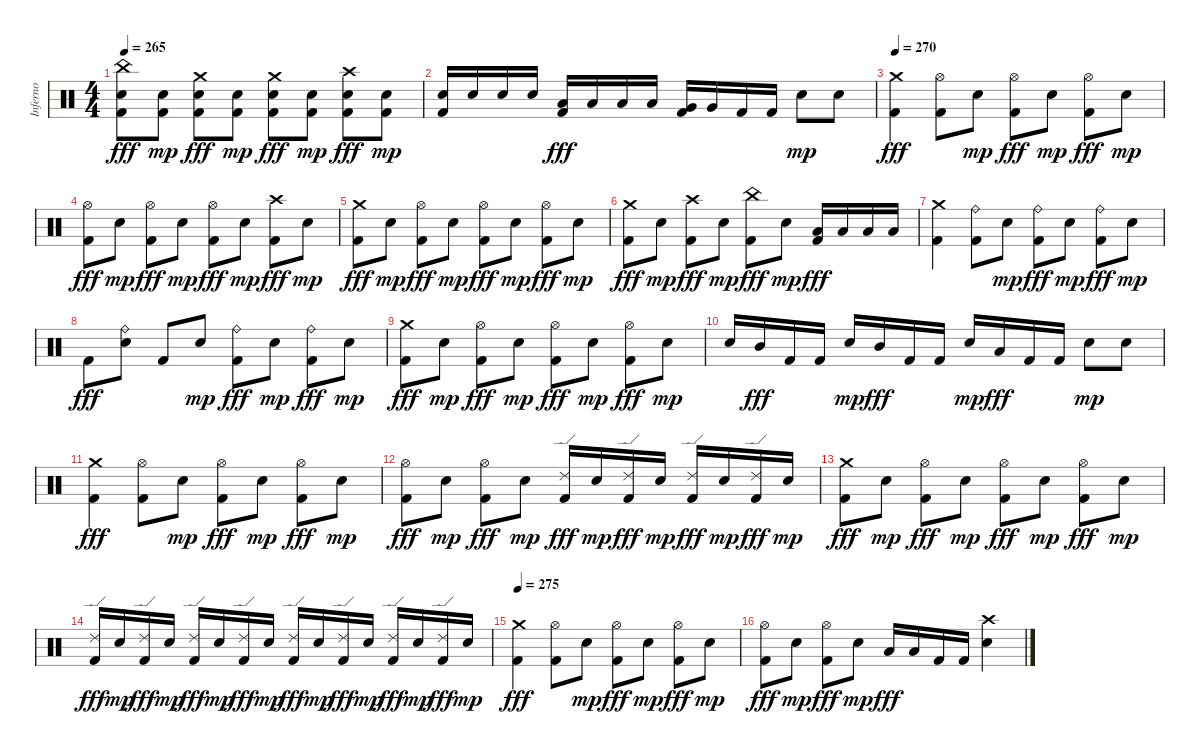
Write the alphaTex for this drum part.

\track ("Inferno" "Inferno") {instrument percussion}
\staff {score}
\articulation defaults
\ts (4 4)
\tempo 265
\clef neutral
\ks c
("Kick (hit) 2" "Electric Snare (hit)" "China (hit)").8{dy fff} ("Kick (hit) 2" "Electric Snare (hit)").8{dy mp} ("Kick (hit) 2" "Electric Snare (hit)" "Crash medium (hit)").8{dy fff} ("Kick (hit) 2" "Electric Snare (hit)").8{dy mp} ("Kick (hit) 2" "Electric Snare (hit)" "Crash medium (hit)").8{dy fff} ("Kick (hit) 2" "Electric Snare (hit)").8{dy mp} ("Kick (hit) 2" "Electric Snare (hit)" "Crash high (hit)").8{dy fff} ("Kick (hit) 2" "Electric Snare (hit)").8{dy mp} |
("Kick (hit) 2" "Electric Snare (hit)").16 "Electric Snare (hit)".16 "Electric Snare (hit)".16 "Electric Snare (hit)".16 ("Kick (hit) 2" "Low Tom (hit)").16{dy fff} "Low Tom (hit)".16 "Low Tom (hit)".16 "Low Tom (hit)".16 ("Kick (hit) 2" "Very Low Tom (hit)").16 "Very Low Tom (hit)".16 "Kick (hit) 2".16 "Kick (hit) 2".16 "Electric Snare (hit)".8{dy mp} "Electric Snare (hit)".8 |
\tempo 270
("Kick (hit) 2" "Crash medium (hit)").4{dy fff} ("Kick (hit) 2" "Hi-Hat (open)").8 "Electric Snare (hit)".8{dy mp} ("Kick (hit) 2" "Hi-Hat (open)").8{dy fff} "Electric Snare (hit)".8{dy mp} ("Kick (hit) 2" "Hi-Hat (open)").8{dy fff} "Electric Snare (hit)".8{dy mp} |
("Kick (hit) 2" "Hi-Hat (open)").8{dy fff} "Electric Snare (hit)".8{dy mp} ("Kick (hit) 2" "Hi-Hat (open)").8{dy fff} "Electric Snare (hit)".8{dy mp} ("Kick (hit) 2" "Hi-Hat (open)").8{dy fff} "Electric Snare (hit)".8{dy mp} ("Kick (hit) 2" "Crash high (hit)").8{dy fff} "Electric Snare (hit)".8{dy mp} |
("Kick (hit) 2" "Crash medium (hit)").8{dy fff} "Electric Snare (hit)".8{dy mp} ("Kick (hit) 2" "Hi-Hat (open)").8{dy fff} "Electric Snare (hit)".8{dy mp} ("Kick (hit) 2" "Hi-Hat (open)").8{dy fff} "Electric Snare (hit)".8{dy mp} ("Kick (hit) 2" "Hi-Hat (open)").8{dy fff} "Electric Snare (hit)".8{dy mp} |
("Kick (hit) 2" "Crash medium (hit)").8{dy fff} "Electric Snare (hit)".8{dy mp} ("Kick (hit) 2" "Crash high (hit)").8{dy fff} "Electric Snare (hit)".8{dy mp} ("Kick (hit) 2" "China (hit)").8{dy fff} "Electric Snare (hit)".8{dy mp} ("Kick (hit) 2" "Low Tom (hit)").16{dy fff} "Low Tom (hit)".16 "Low Tom (hit)".16 "Low Tom (hit)".16 |
("Kick (hit) 2" "Crash medium (hit)").4 ("Kick (hit) 2" "Ride (bell)").8 "Electric Snare (hit)".8{dy mp} ("Kick (hit) 2" "Ride (bell)").8{dy fff} "Electric Snare (hit)".8{dy mp} ("Kick (hit) 2" "Ride (bell)").8{dy fff} "Electric Snare (hit)".8{dy mp} |
"Kick (hit) 2".8{dy fff} ("Electric Snare (hit)" "Ride (bell)").8 "Kick (hit) 2".8 "Electric Snare (hit)".8{dy mp} ("Kick (hit) 2" "Ride (bell)").8{dy fff} "Electric Snare (hit)".8{dy mp} ("Kick (hit) 2" "Ride (bell)").8{dy fff} "Electric Snare (hit)".8{dy mp} |
("Kick (hit) 2" "Crash medium (hit)").8{dy fff} "Electric Snare (hit)".8{dy mp} ("Kick (hit) 2" "Hi-Hat (open)").8{dy fff} "Electric Snare (hit)".8{dy mp} ("Kick (hit) 2" "Hi-Hat (open)").8{dy fff} "Electric Snare (hit)".8{dy mp} ("Kick (hit) 2" "Hi-Hat (open)").8{dy fff} "Electric Snare (hit)".8{dy mp} |
"Electric Snare (hit)".16 "Mid Tom (hit)".16{dy fff} "Kick (hit) 2".16 "Kick (hit) 2".16 "Electric Snare (hit)".16{dy mp} "Mid Tom (hit)".16{dy fff} "Kick (hit) 2".16 "Kick (hit) 2".16 "Electric Snare (hit)".16{dy mp} "Low Tom (hit)".16{dy fff} "Kick (hit) 2".16 "Kick (hit) 2".16 "Electric Snare (hit)".8{dy mp} "Electric Snare (hit)".8 |
("Kick (hit) 2" "Crash medium (hit)").4{dy fff} ("Kick (hit) 2" "Hi-Hat (open)").8 "Electric Snare (hit)".8{dy mp} ("Kick (hit) 2" "Hi-Hat (open)").8{dy fff} "Electric Snare (hit)".8{dy mp} ("Kick (hit) 2" "Hi-Hat (open)").8{dy fff} "Electric Snare (hit)".8{dy mp} |
("Kick (hit) 2" "Hi-Hat (open)").8{dy fff} "Electric Snare (hit)".8{dy mp} ("Kick (hit) 2" "Hi-Hat (open)").8{dy fff} "Electric Snare (hit)".8{dy mp} ("Kick (hit) 2" "Ride (edge) 2").16{dy fff} "Electric Snare (hit)".16{dy mp} ("Kick (hit) 2" "Ride (edge) 2").16{dy fff} "Electric Snare (hit)".16{dy mp} ("Kick (hit) 2" "Ride (edge) 2").16{dy fff} "Electric Snare (hit)".16{dy mp} ("Kick (hit) 2" "Ride (edge) 2").16{dy fff} "Electric Snare (hit)".16{dy mp} |
("Kick (hit) 2" "Crash medium (hit)").8{dy fff} "Electric Snare (hit)".8{dy mp} ("Kick (hit) 2" "Hi-Hat (open)").8{dy fff} "Electric Snare (hit)".8{dy mp} ("Kick (hit) 2" "Hi-Hat (open)").8{dy fff} "Electric Snare (hit)".8{dy mp} ("Kick (hit) 2" "Hi-Hat (open)").8{dy fff} "Electric Snare (hit)".8{dy mp} |
("Kick (hit) 2" "Ride (edge) 2").16{dy fff} "Electric Snare (hit)".16{dy mp} ("Kick (hit) 2" "Ride (edge) 2").16{dy fff} "Electric Snare (hit)".16{dy mp} ("Kick (hit) 2" "Ride (edge) 2").16{dy fff} "Electric Snare (hit)".16{dy mp} ("Kick (hit) 2" "Ride (edge) 2").16{dy fff} "Electric Snare (hit)".16{dy mp} ("Kick (hit) 2" "Ride (edge) 2").16{dy fff} "Electric Snare (hit)".16{dy mp} ("Kick (hit) 2" "Ride (edge) 2").16{dy fff} "Electric Snare (hit)".16{dy mp} ("Kick (hit) 2" "Ride (edge) 2").16{dy fff} "Electric Snare (hit)".16{dy mp} ("Kick (hit) 2" "Ride (edge) 2").16{dy fff} "Electric Snare (hit)".16{dy mp} |
\tempo 275
("Kick (hit) 2" "Crash medium (hit)").4{dy fff} ("Kick (hit) 2" "Hi-Hat (open)").8 "Electric Snare (hit)".8{dy mp} ("Kick (hit) 2" "Hi-Hat (open)").8{dy fff} "Electric Snare (hit)".8{dy mp} ("Kick (hit) 2" "Hi-Hat (open)").8{dy fff} "Electric Snare (hit)".8{dy mp} |
("Kick (hit) 2" "Hi-Hat (open)").8{dy fff} "Electric Snare (hit)".8{dy mp} ("Kick (hit) 2" "Hi-Hat (open)").8{dy fff} "Electric Snare (hit)".8{dy mp} "Low Tom (hit)".16{dy fff} "Low Tom (hit)".16 "Kick (hit) 2".16 "Kick (hit) 2".16 ("Electric Snare (hit)" "Crash high (hit)").4
